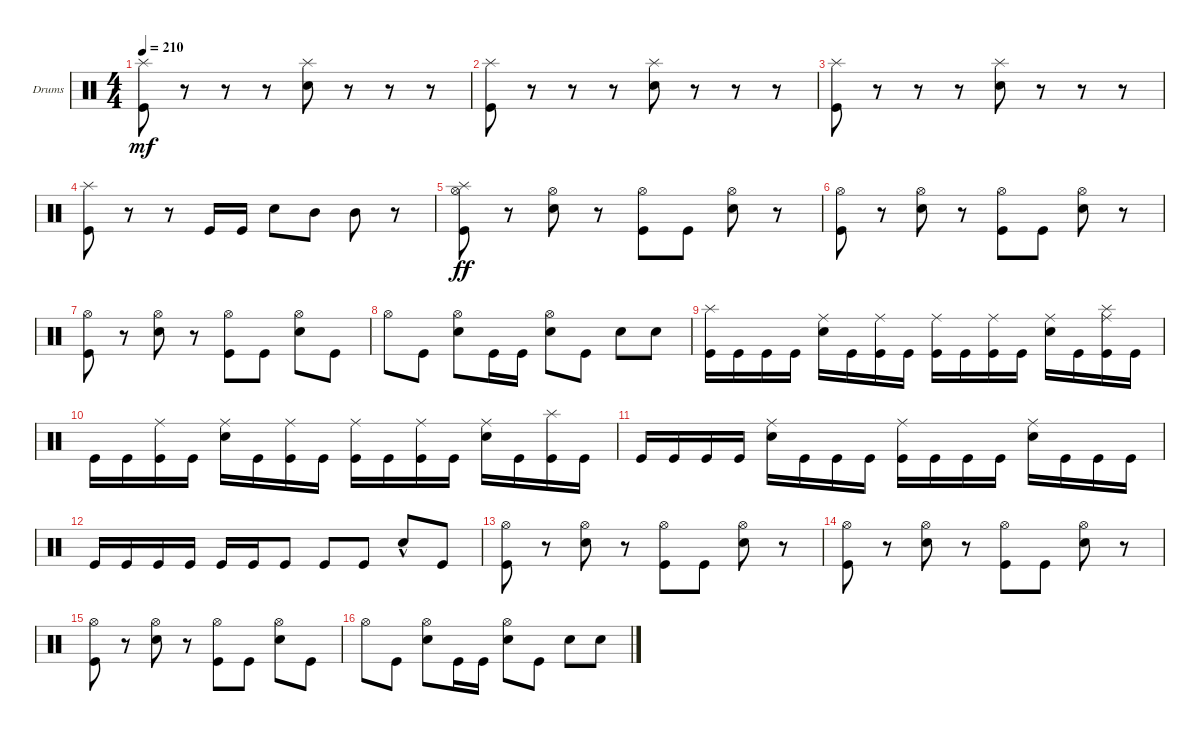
\bracketExtendMode groupsimilarinstruments
\firstSystemTrackNameOrientation horizontal
\otherSystemsTrackNameOrientation horizontal
\track ("Drumkit" "Drums") {instrument percussion}
\staff {score}
\articulation defaults
\ts (4 4)
\tempo 210
\clef neutral
\ks c
("Kick (hit)" "Splash (hit)").8{dy mf} r.8 r.8 r.8 ("Snare (hit) 2" "Splash (hit)").8 r.8 r.8 r.8 |
("Kick (hit)" "Splash (hit)").8 r.8 r.8 r.8 ("Snare (hit) 2" "Splash (hit)").8 r.8 r.8 r.8 |
("Kick (hit)" "Splash (hit)").8 r.8 r.8 r.8 ("Snare (hit) 2" "Splash (hit)").8 r.8 r.8 r.8 |
("Kick (hit)" "Splash (hit)").8 r.8 r.8 "Kick (hit)".16 "Kick (hit)".16 "Snare (hit) 2".8 "Mid Tom (hit)".8 "Mid Tom (hit)".8 r.8 |
("Kick (hit)" "Hi-Hat (open)" "Splash (hit)").8{dy ff} r.8 ("Snare (hit) 2" "Hi-Hat (open)").8 r.8 ("Kick (hit)" "Hi-Hat (open)").8 "Kick (hit)".8 ("Snare (hit) 2" "Hi-Hat (open)").8 r.8 |
("Kick (hit)" "Hi-Hat (open)").8 r.8 ("Snare (hit) 2" "Hi-Hat (open)").8 r.8 ("Kick (hit)" "Hi-Hat (open)").8 "Kick (hit)".8 ("Snare (hit) 2" "Hi-Hat (open)").8 r.8 |
("Kick (hit)" "Hi-Hat (open)").8 r.8 ("Snare (hit) 2" "Hi-Hat (open)").8 r.8 ("Kick (hit)" "Hi-Hat (open)").8 "Kick (hit)".8 ("Snare (hit) 2" "Hi-Hat (open)").8 "Kick (hit)".8 |
"Hi-Hat (open)".8 "Kick (hit)".8 ("Snare (hit) 2" "Hi-Hat (open)").8 "Kick (hit)".16 "Kick (hit)".16 ("Snare (hit) 2" "Hi-Hat (open)").8 "Kick (hit)".8 "Snare (hit) 2".8 "Snare (hit) 2".8 |
("Kick (hit)" "Splash (hit)").16 "Kick (hit)".16 "Kick (hit)".16 "Kick (hit)".16 ("Snare (hit) 2" "Ride (middle)").16 "Kick (hit)".16 ("Kick (hit)" "Ride (middle)").16 "Kick (hit)".16 ("Kick (hit)" "Ride (middle)").16 "Kick (hit)".16 ("Kick (hit)" "Ride (middle)").16 "Kick (hit)".16 ("Snare (hit) 2" "Ride (middle)").16 "Kick (hit)".16 ("Kick (hit)" "Ride (middle)" "Splash (hit)").16 "Kick (hit)".16 |
"Kick (hit)".16 "Kick (hit)".16 ("Kick (hit)" "Ride (middle)").16 "Kick (hit)".16 ("Snare (hit) 2" "Ride (middle)").16 "Kick (hit)".16 ("Kick (hit)" "Ride (middle)").16 "Kick (hit)".16 ("Kick (hit)" "Ride (middle)").16 "Kick (hit)".16 ("Kick (hit)" "Ride (middle)").16 "Kick (hit)".16 ("Snare (hit) 2" "Ride (middle)").16 "Kick (hit)".16 ("Kick (hit)" "Splash (hit)").16 "Kick (hit)".16 |
"Kick (hit)".16 "Kick (hit)".16 "Kick (hit)".16 "Kick (hit)".16 ("Snare (hit) 2" "Ride (middle)").16 "Kick (hit)".16 "Kick (hit)".16 "Kick (hit)".16 ("Kick (hit)" "Ride (middle)").16 "Kick (hit)".16 "Kick (hit)".16 "Kick (hit)".16 ("Snare (hit) 2" "Ride (middle)").16 "Kick (hit)".16 "Kick (hit)".16 "Kick (hit)".16 |
"Kick (hit)".16 "Kick (hit)".16 "Kick (hit)".16 "Kick (hit)".16 "Kick (hit)".16 "Kick (hit)".16 "Kick (hit)".8 "Kick (hit)".8 "Kick (hit)".8 "Snare (hit) 2"{hac}.8 "Kick (hit)".8 |
("Kick (hit)" "Hi-Hat (open)").8 r.8 ("Snare (hit) 2" "Hi-Hat (open)").8 r.8 ("Kick (hit)" "Hi-Hat (open)").8 "Kick (hit)".8 ("Snare (hit) 2" "Hi-Hat (open)").8 r.8 |
("Kick (hit)" "Hi-Hat (open)").8 r.8 ("Snare (hit) 2" "Hi-Hat (open)").8 r.8 ("Kick (hit)" "Hi-Hat (open)").8 "Kick (hit)".8 ("Snare (hit) 2" "Hi-Hat (open)").8 r.8 |
("Kick (hit)" "Hi-Hat (open)").8 r.8 ("Snare (hit) 2" "Hi-Hat (open)").8 r.8 ("Kick (hit)" "Hi-Hat (open)").8 "Kick (hit)".8 ("Snare (hit) 2" "Hi-Hat (open)").8 "Kick (hit)".8 |
"Hi-Hat (open)".8 "Kick (hit)".8 ("Snare (hit) 2" "Hi-Hat (open)").8 "Kick (hit)".16 "Kick (hit)".16 ("Snare (hit) 2" "Hi-Hat (open)").8 "Kick (hit)".8 "Snare (hit) 2".8 "Snare (hit) 2".8
